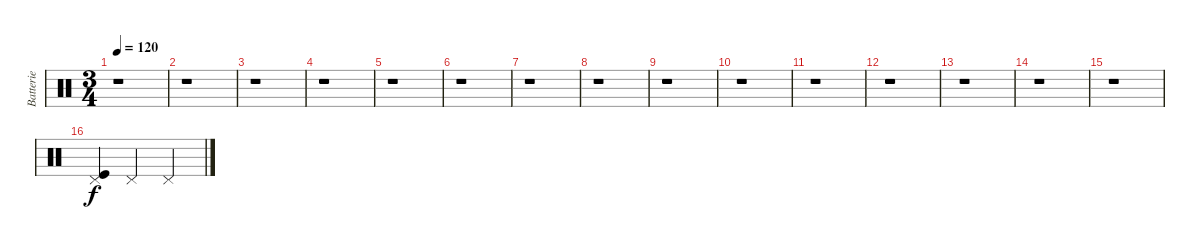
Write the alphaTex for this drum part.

\track ("Batterie" "Batterie") {instrument percussion}
\staff {score}
\articulation defaults
\ts (3 4)
\tempo 120
\clef neutral
\ks c
r.1{dy f} |
r.1 |
r.1 |
r.1 |
r.1 |
r.1 |
r.1 |
r.1 |
r.1 |
r.1 |
r.1 |
r.1 |
r.1 |
r.1 |
r.1 |
("Pedal Hi-Hat (hit)" "Kick (hit)").4 "Pedal Hi-Hat (hit)".4 "Pedal Hi-Hat (hit)".4
